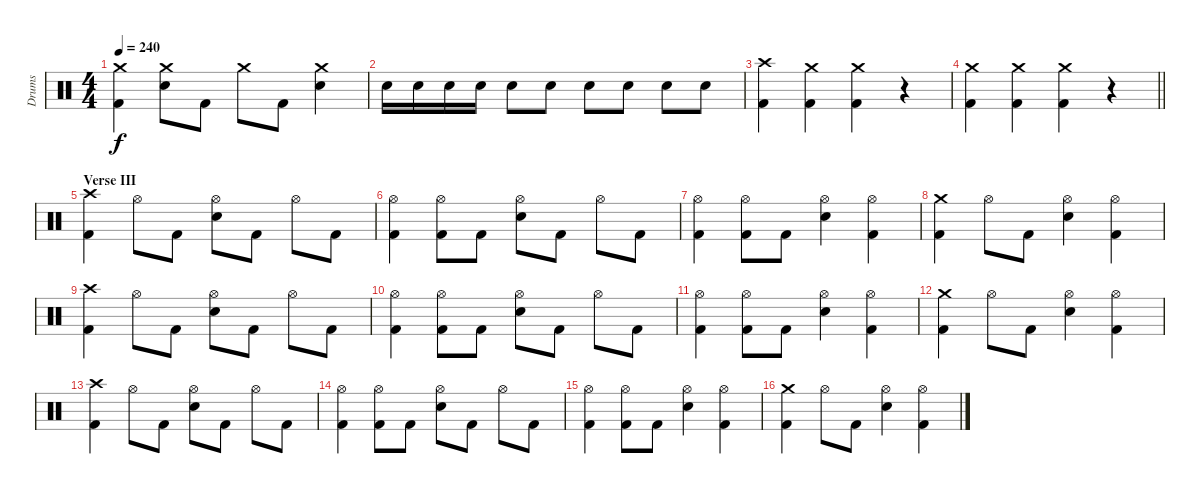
\track ("Drums" "Drums") {instrument percussion}
\staff {score}
\articulation defaults
\ts (4 4)
\tempo 240
\clef neutral
\ks c
("Crash medium (hit)" "Kick (hit) 2").4{dy f} ("Crash medium (hit)" "Snare (hit) 2").8 "Kick (hit) 2".8 "Crash medium (hit)".8 "Kick (hit) 2".8 ("Crash medium (hit)" "Snare (hit) 2").4 |
"Snare (hit) 2".16 "Snare (hit) 2".16 "Snare (hit) 2".16 "Snare (hit) 2".16 "Snare (hit) 2".8 "Snare (hit) 2".8 "Snare (hit) 2".8 "Snare (hit) 2".8 "Snare (hit) 2".8 "Snare (hit) 2".8 |
("Crash high (hit)" "Kick (hit) 2").4 ("Crash medium (hit)" "Kick (hit) 2").4 ("Crash medium (hit)" "Kick (hit) 2").4 r.4 |
\barLineRight lightlight
("Crash medium (hit)" "Kick (hit) 2").4 ("Crash medium (hit)" "Kick (hit) 2").4 ("Crash medium (hit)" "Kick (hit) 2").4 r.4 |
\section ("" "Verse III")
("Crash high (hit)" "Kick (hit) 2").4 "Hi-Hat (open)".8 "Kick (hit) 2".8 ("Hi-Hat (open)" "Snare (hit) 2").8 "Kick (hit) 2".8 "Hi-Hat (open)".8 "Kick (hit) 2".8 |
("Hi-Hat (open)" "Kick (hit) 2").4 ("Hi-Hat (open)" "Kick (hit) 2").8 "Kick (hit) 2".8 ("Hi-Hat (open)" "Snare (hit) 2").8 "Kick (hit) 2".8 "Hi-Hat (open)".8 "Kick (hit) 2".8 |
("Hi-Hat (open)" "Kick (hit) 2").4 ("Hi-Hat (open)" "Kick (hit) 2").8 "Kick (hit) 2".8 ("Hi-Hat (open)" "Snare (hit) 2").4 ("Hi-Hat (open)" "Kick (hit) 2").4 |
("Crash medium (hit)" "Kick (hit) 2").4 "Hi-Hat (open)".8 "Kick (hit) 2".8 ("Hi-Hat (open)" "Snare (hit) 2").4 ("Hi-Hat (open)" "Kick (hit) 2").4 |
("Crash high (hit)" "Kick (hit) 2").4 "Hi-Hat (open)".8 "Kick (hit) 2".8 ("Hi-Hat (open)" "Snare (hit) 2").8 "Kick (hit) 2".8 "Hi-Hat (open)".8 "Kick (hit) 2".8 |
("Hi-Hat (open)" "Kick (hit) 2").4 ("Hi-Hat (open)" "Kick (hit) 2").8 "Kick (hit) 2".8 ("Hi-Hat (open)" "Snare (hit) 2").8 "Kick (hit) 2".8 "Hi-Hat (open)".8 "Kick (hit) 2".8 |
("Hi-Hat (open)" "Kick (hit) 2").4 ("Hi-Hat (open)" "Kick (hit) 2").8 "Kick (hit) 2".8 ("Hi-Hat (open)" "Snare (hit) 2").4 ("Hi-Hat (open)" "Kick (hit) 2").4 |
("Crash medium (hit)" "Kick (hit) 2").4 "Hi-Hat (open)".8 "Kick (hit) 2".8 ("Hi-Hat (open)" "Snare (hit) 2").4 ("Hi-Hat (open)" "Kick (hit) 2").4 |
("Crash high (hit)" "Kick (hit) 2").4 "Hi-Hat (open)".8 "Kick (hit) 2".8 ("Hi-Hat (open)" "Snare (hit) 2").8 "Kick (hit) 2".8 "Hi-Hat (open)".8 "Kick (hit) 2".8 |
("Hi-Hat (open)" "Kick (hit) 2").4 ("Hi-Hat (open)" "Kick (hit) 2").8 "Kick (hit) 2".8 ("Hi-Hat (open)" "Snare (hit) 2").8 "Kick (hit) 2".8 "Hi-Hat (open)".8 "Kick (hit) 2".8 |
("Hi-Hat (open)" "Kick (hit) 2").4 ("Hi-Hat (open)" "Kick (hit) 2").8 "Kick (hit) 2".8 ("Hi-Hat (open)" "Snare (hit) 2").4 ("Hi-Hat (open)" "Kick (hit) 2").4 |
("Crash medium (hit)" "Kick (hit) 2").4 "Hi-Hat (open)".8 "Kick (hit) 2".8 ("Hi-Hat (open)" "Snare (hit) 2").4 ("Hi-Hat (open)" "Kick (hit) 2").4
